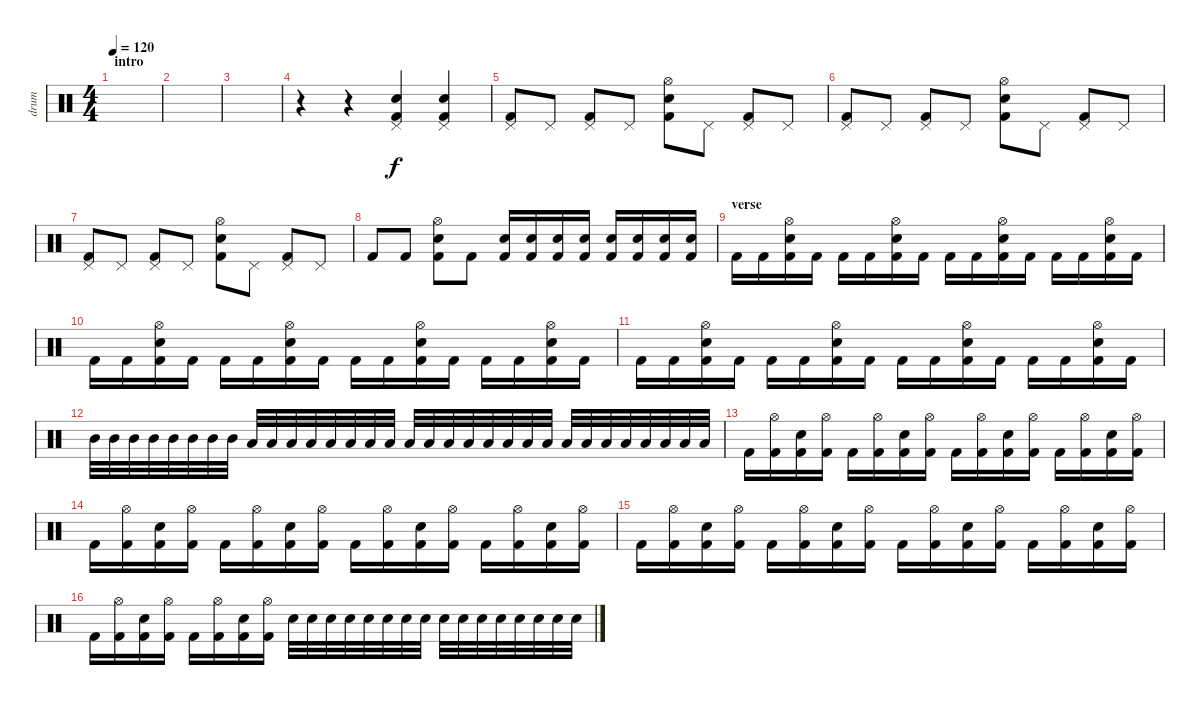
\track ("drum" "drum") {instrument percussion}
\staff {score}
\articulation defaults
\ts (4 4)
\section ("" "intro")
\tempo 120
\clef neutral
\ks c
|
|
|
r.4 r.4 ("Pedal Hi-Hat (hit)" "Kick (hit) 2" "Snare (hit) 2").4 ("Pedal Hi-Hat (hit)" "Kick (hit) 2" "Snare (hit) 2").4 |
("Pedal Hi-Hat (hit)" "Kick (hit) 2").8 "Pedal Hi-Hat (hit)".8 ("Pedal Hi-Hat (hit)" "Kick (hit) 2").8 "Pedal Hi-Hat (hit)".8 ("Snare (hit) 2" "Hi-Hat (open)" "Kick (hit) 2").8 "Pedal Hi-Hat (hit)".8 ("Pedal Hi-Hat (hit)" "Kick (hit) 2").8 "Pedal Hi-Hat (hit)".8 |
("Pedal Hi-Hat (hit)" "Kick (hit) 2").8 "Pedal Hi-Hat (hit)".8 ("Pedal Hi-Hat (hit)" "Kick (hit) 2").8 "Pedal Hi-Hat (hit)".8 ("Snare (hit) 2" "Hi-Hat (open)" "Kick (hit) 2").8 "Pedal Hi-Hat (hit)".8 ("Pedal Hi-Hat (hit)" "Kick (hit) 2").8 "Pedal Hi-Hat (hit)".8 |
("Pedal Hi-Hat (hit)" "Kick (hit) 2").8 "Pedal Hi-Hat (hit)".8 ("Pedal Hi-Hat (hit)" "Kick (hit) 2").8 "Pedal Hi-Hat (hit)".8 ("Snare (hit) 2" "Hi-Hat (open)" "Kick (hit) 2").8 "Pedal Hi-Hat (hit)".8 ("Pedal Hi-Hat (hit)" "Kick (hit) 2").8 "Pedal Hi-Hat (hit)".8 |
"Kick (hit) 2".8 "Kick (hit) 2".8 ("Snare (hit) 2" "Hi-Hat (open)" "Kick (hit) 2").8 "Kick (hit) 2".8 ("Kick (hit) 2" "Snare (hit) 2").16 ("Kick (hit) 2" "Snare (hit) 2").16 ("Kick (hit) 2" "Snare (hit) 2").16 ("Kick (hit) 2" "Snare (hit) 2").16 ("Kick (hit) 2" "Snare (hit) 2").16 ("Kick (hit) 2" "Snare (hit) 2").16 ("Kick (hit) 2" "Snare (hit) 2").16 ("Kick (hit) 2" "Snare (hit) 2").16 |
\section ("" "verse")
"Kick (hit) 2".16 "Kick (hit) 2".16 ("Snare (hit) 2" "Hi-Hat (open)" "Kick (hit) 2").16 "Kick (hit) 2".16 "Kick (hit) 2".16 "Kick (hit) 2".16 ("Snare (hit) 2" "Hi-Hat (open)" "Kick (hit) 2").16 "Kick (hit) 2".16 "Kick (hit) 2".16 "Kick (hit) 2".16 ("Snare (hit) 2" "Hi-Hat (open)" "Kick (hit) 2").16 "Kick (hit) 2".16 "Kick (hit) 2".16 "Kick (hit) 2".16 ("Snare (hit) 2" "Hi-Hat (open)" "Kick (hit) 2").16 "Kick (hit) 2".16 |
"Kick (hit) 2".16 "Kick (hit) 2".16 ("Snare (hit) 2" "Hi-Hat (open)" "Kick (hit) 2").16 "Kick (hit) 2".16 "Kick (hit) 2".16 "Kick (hit) 2".16 ("Snare (hit) 2" "Hi-Hat (open)" "Kick (hit) 2").16 "Kick (hit) 2".16 "Kick (hit) 2".16 "Kick (hit) 2".16 ("Snare (hit) 2" "Hi-Hat (open)" "Kick (hit) 2").16 "Kick (hit) 2".16 "Kick (hit) 2".16 "Kick (hit) 2".16 ("Snare (hit) 2" "Hi-Hat (open)" "Kick (hit) 2").16 "Kick (hit) 2".16 |
"Kick (hit) 2".16 "Kick (hit) 2".16 ("Snare (hit) 2" "Hi-Hat (open)" "Kick (hit) 2").16 "Kick (hit) 2".16 "Kick (hit) 2".16 "Kick (hit) 2".16 ("Snare (hit) 2" "Hi-Hat (open)" "Kick (hit) 2").16 "Kick (hit) 2".16 "Kick (hit) 2".16 "Kick (hit) 2".16 ("Snare (hit) 2" "Hi-Hat (open)" "Kick (hit) 2").16 "Kick (hit) 2".16 "Kick (hit) 2".16 "Kick (hit) 2".16 ("Snare (hit) 2" "Hi-Hat (open)" "Kick (hit) 2").16 "Kick (hit) 2".16 |
"Mid Tom (hit)".32 "Mid Tom (hit)".32 "Mid Tom (hit)".32 "Mid Tom (hit)".32 "Mid Tom (hit)".32 "Mid Tom (hit)".32 "Mid Tom (hit)".32 "Mid Tom (hit)".32 "Low Tom (hit)".32 "Low Tom (hit)".32 "Low Tom (hit)".32 "Low Tom (hit)".32 "Low Tom (hit)".32 "Low Tom (hit)".32 "Low Tom (hit)".32 "Low Tom (hit)".32 "Low Floor Tom (hit)".32 "Low Floor Tom (hit)".32 "Low Floor Tom (hit)".32 "Low Floor Tom (hit)".32 "Low Floor Tom (hit)".32 "Low Floor Tom (hit)".32 "Low Floor Tom (hit)".32 "Low Floor Tom (hit)".32 "Low Tom (hit)".32 "Low Tom (hit)".32 "Low Tom (hit)".32 "Low Tom (hit)".32 "Low Tom (hit)".32 "Low Tom (hit)".32 "Low Tom (hit)".32 "Low Tom (hit)".32 |
"Kick (hit) 2".16 ("Hi-Hat (open)" "Kick (hit) 2").16 ("Snare (hit) 2" "Kick (hit) 2").16 ("Hi-Hat (open)" "Kick (hit) 2").16 "Kick (hit) 2".16 ("Hi-Hat (open)" "Kick (hit) 2").16 ("Snare (hit) 2" "Kick (hit) 2").16 ("Hi-Hat (open)" "Kick (hit) 2").16 "Kick (hit) 2".16 ("Hi-Hat (open)" "Kick (hit) 2").16 ("Snare (hit) 2" "Kick (hit) 2").16 ("Hi-Hat (open)" "Kick (hit) 2").16 "Kick (hit) 2".16 ("Hi-Hat (open)" "Kick (hit) 2").16 ("Snare (hit) 2" "Kick (hit) 2").16 ("Hi-Hat (open)" "Kick (hit) 2").16 |
"Kick (hit) 2".16 ("Hi-Hat (open)" "Kick (hit) 2").16 ("Snare (hit) 2" "Kick (hit) 2").16 ("Hi-Hat (open)" "Kick (hit) 2").16 "Kick (hit) 2".16 ("Hi-Hat (open)" "Kick (hit) 2").16 ("Snare (hit) 2" "Kick (hit) 2").16 ("Hi-Hat (open)" "Kick (hit) 2").16 "Kick (hit) 2".16 ("Hi-Hat (open)" "Kick (hit) 2").16 ("Snare (hit) 2" "Kick (hit) 2").16 ("Hi-Hat (open)" "Kick (hit) 2").16 "Kick (hit) 2".16 ("Hi-Hat (open)" "Kick (hit) 2").16 ("Snare (hit) 2" "Kick (hit) 2").16 ("Hi-Hat (open)" "Kick (hit) 2").16 |
"Kick (hit) 2".16 ("Hi-Hat (open)" "Kick (hit) 2").16 ("Snare (hit) 2" "Kick (hit) 2").16 ("Hi-Hat (open)" "Kick (hit) 2").16 "Kick (hit) 2".16 ("Hi-Hat (open)" "Kick (hit) 2").16 ("Snare (hit) 2" "Kick (hit) 2").16 ("Hi-Hat (open)" "Kick (hit) 2").16 "Kick (hit) 2".16 ("Hi-Hat (open)" "Kick (hit) 2").16 ("Snare (hit) 2" "Kick (hit) 2").16 ("Hi-Hat (open)" "Kick (hit) 2").16 "Kick (hit) 2".16 ("Hi-Hat (open)" "Kick (hit) 2").16 ("Snare (hit) 2" "Kick (hit) 2").16 ("Hi-Hat (open)" "Kick (hit) 2").16 |
"Kick (hit) 2".16 ("Hi-Hat (open)" "Kick (hit) 2").16 ("Snare (hit) 2" "Kick (hit) 2").16 ("Hi-Hat (open)" "Kick (hit) 2").16 "Kick (hit) 2".16 ("Hi-Hat (open)" "Kick (hit) 2").16 ("Snare (hit) 2" "Kick (hit) 2").16 ("Hi-Hat (open)" "Kick (hit) 2").16 "Snare (hit) 2".32 "Snare (hit) 2".32 "Snare (hit) 2".32 "Snare (hit) 2".32 "Snare (hit) 2".32 "Snare (hit) 2".32 "Snare (hit) 2".32 "Snare (hit) 2".32 "Snare (hit) 2".32 "Snare (hit) 2".32 "Snare (hit) 2".32 "Snare (hit) 2".32 "Snare (hit) 2".32 "Snare (hit) 2".32 "Snare (hit) 2".32 "Snare (hit) 2".32
